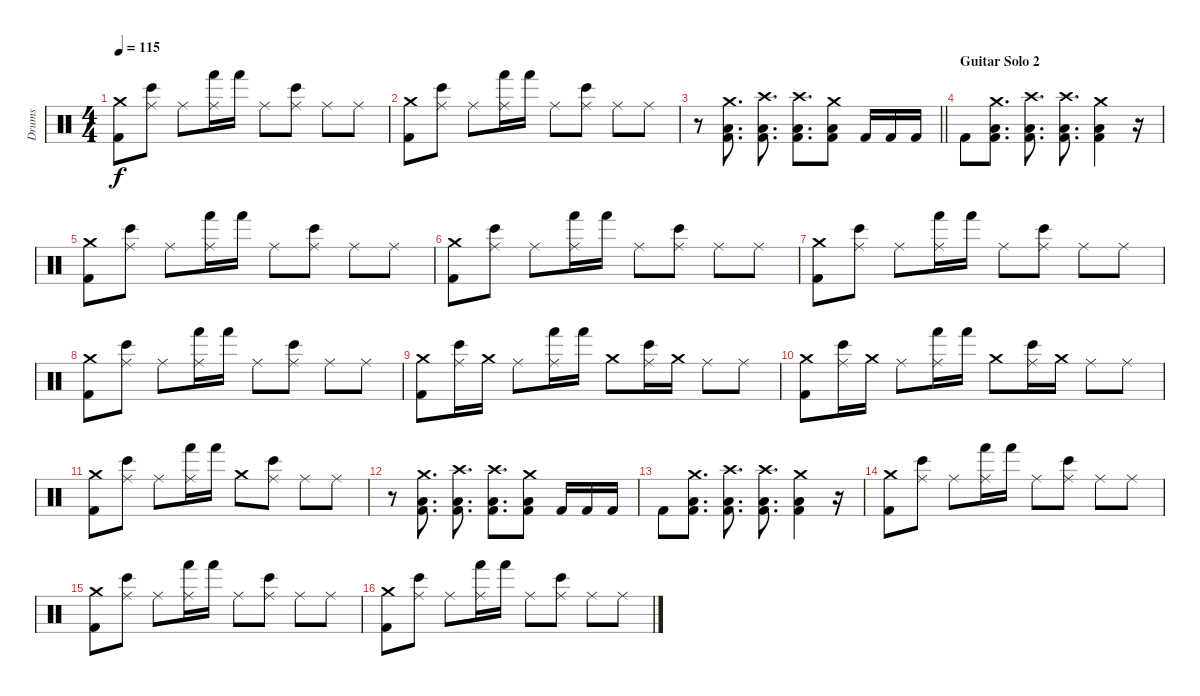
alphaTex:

\track ("Drums" "Drums") {instrument percussion}
\staff {score}
\articulation defaults
\ts (4 4)
\tempo 115
\clef neutral
\ks c
("Crash medium (hit)" "Kick (hit) 2").8{dy f} ("Ride (middle)" "Bongo High (hit)").8 "Ride (middle)".8 ("Ride (middle)" "Hand (hit)").16 "Hand (hit)".16 "Ride (middle)".8 ("Ride (middle)" "Bongo High (hit)").8 "Ride (middle)".8 "Ride (middle)".8 |
("Crash medium (hit)" "Kick (hit) 2").8 ("Ride (middle)" "Bongo High (hit)").8 "Ride (middle)".8 ("Ride (middle)" "Hand (hit)").16 "Hand (hit)".16 "Ride (middle)".8 ("Ride (middle)" "Bongo High (hit)").8 "Ride (middle)".8 "Ride (middle)".8 |
\barLineRight lightlight
r.8 ("Crash medium (hit)" "Low Tom (hit)" "Kick (hit) 2").8{d} ("Crash high (hit)" "Low Tom (hit)" "Kick (hit) 2").8{d} ("Crash high (hit)" "Low Tom (hit)" "Kick (hit) 2").8{d} ("Crash medium (hit)" "Low Tom (hit)" "Kick (hit) 2").8 "Kick (hit) 2".16 "Kick (hit) 2".16 "Kick (hit) 2".16 |
\section ("" "Guitar Solo 2")
"Kick (hit) 2".8 ("Crash medium (hit)" "Low Tom (hit)" "Kick (hit) 2").8{d} ("Crash high (hit)" "Low Tom (hit)" "Kick (hit) 2").8{d} ("Crash high (hit)" "Low Tom (hit)" "Kick (hit) 2").8{d} ("Crash medium (hit)" "Low Tom (hit)" "Kick (hit) 2").4 r.16 |
("Crash medium (hit)" "Kick (hit) 2").8 ("Ride (middle)" "Bongo High (hit)").8 "Ride (middle)".8 ("Ride (middle)" "Hand (hit)").16 "Hand (hit)".16 "Ride (middle)".8 ("Ride (middle)" "Bongo High (hit)").8 "Ride (middle)".8 "Ride (middle)".8 |
("Crash medium (hit)" "Kick (hit) 2").8 ("Ride (middle)" "Bongo High (hit)").8 "Ride (middle)".8 ("Ride (middle)" "Hand (hit)").16 "Hand (hit)".16 "Ride (middle)".8 ("Ride (middle)" "Bongo High (hit)").8 "Ride (middle)".8 "Ride (middle)".8 |
("Crash medium (hit)" "Kick (hit) 2").8 ("Ride (middle)" "Bongo High (hit)").8 "Ride (middle)".8 ("Ride (middle)" "Hand (hit)").16 "Hand (hit)".16 "Ride (middle)".8 ("Ride (middle)" "Bongo High (hit)").8 "Ride (middle)".8 "Ride (middle)".8 |
("Crash medium (hit)" "Kick (hit) 2").8 ("Ride (middle)" "Bongo High (hit)").8 "Ride (middle)".8 ("Ride (middle)" "Hand (hit)").16 "Hand (hit)".16 "Ride (middle)".8 ("Ride (middle)" "Bongo High (hit)").8 "Ride (middle)".8 "Ride (middle)".8 |
("Crash medium (hit)" "Kick (hit) 2").8 ("Ride (middle)" "Bongo High (hit)").16 "Crash medium (hit)".16 "Ride (middle)".8 ("Ride (middle)" "Hand (hit)").16 "Hand (hit)".16 "Crash medium (hit)".8 ("Ride (middle)" "Bongo High (hit)").16 "Crash medium (hit)".16 "Ride (middle)".8 "Ride (middle)".8 |
("Crash medium (hit)" "Kick (hit) 2").8 ("Ride (middle)" "Bongo High (hit)").16 "Crash medium (hit)".16 "Ride (middle)".8 ("Ride (middle)" "Hand (hit)").16 "Hand (hit)".16 "Crash medium (hit)".8 ("Ride (middle)" "Bongo High (hit)").16 "Crash medium (hit)".16 "Ride (middle)".8 "Ride (middle)".8 |
("Crash medium (hit)" "Kick (hit) 2").8 ("Ride (middle)" "Bongo High (hit)").8 "Ride (middle)".8 ("Ride (middle)" "Hand (hit)").16 "Hand (hit)".16 "Crash medium (hit)".8 ("Ride (middle)" "Bongo High (hit)").8 "Ride (middle)".8 "Ride (middle)".8 |
r.8 ("Crash medium (hit)" "Low Tom (hit)" "Kick (hit) 2").8{d} ("Crash high (hit)" "Low Tom (hit)" "Kick (hit) 2").8{d} ("Crash high (hit)" "Low Tom (hit)" "Kick (hit) 2").8{d} ("Crash medium (hit)" "Low Tom (hit)" "Kick (hit) 2").8 "Kick (hit) 2".16 "Kick (hit) 2".16 "Kick (hit) 2".16 |
"Kick (hit) 2".8 ("Crash medium (hit)" "Low Tom (hit)" "Kick (hit) 2").8{d} ("Crash high (hit)" "Low Tom (hit)" "Kick (hit) 2").8{d} ("Crash high (hit)" "Low Tom (hit)" "Kick (hit) 2").8{d} ("Crash medium (hit)" "Low Tom (hit)" "Kick (hit) 2").4 r.16 |
("Crash medium (hit)" "Kick (hit) 2").8 ("Ride (middle)" "Bongo High (hit)").8 "Ride (middle)".8 ("Ride (middle)" "Hand (hit)").16 "Hand (hit)".16 "Ride (middle)".8 ("Ride (middle)" "Bongo High (hit)").8 "Ride (middle)".8 "Ride (middle)".8 |
("Crash medium (hit)" "Kick (hit) 2").8 ("Ride (middle)" "Bongo High (hit)").8 "Ride (middle)".8 ("Ride (middle)" "Hand (hit)").16 "Hand (hit)".16 "Ride (middle)".8 ("Ride (middle)" "Bongo High (hit)").8 "Ride (middle)".8 "Ride (middle)".8 |
("Crash medium (hit)" "Kick (hit) 2").8 ("Ride (middle)" "Bongo High (hit)").8 "Ride (middle)".8 ("Ride (middle)" "Hand (hit)").16 "Hand (hit)".16 "Ride (middle)".8 ("Ride (middle)" "Bongo High (hit)").8 "Ride (middle)".8 "Ride (middle)".8
